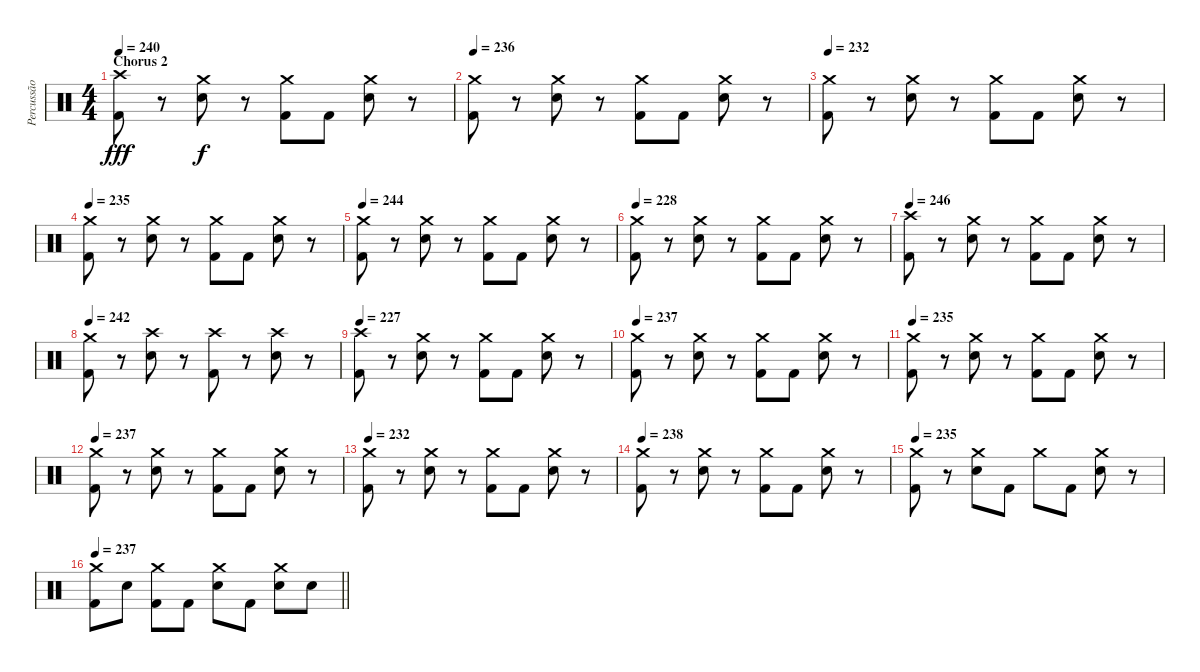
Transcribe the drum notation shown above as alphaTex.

\track ("Percussão" "Percussão") {instrument percussion}
\staff {score}
\articulation defaults
\ts (4 4)
\section ("" "Chorus 2")
\tempo 240
\clef neutral
\ks c
("Crash high (hit)" "Kick (hit) 2").8{dy fff} r.8 ("Crash medium (hit)" "Electric Snare (hit)").8{dy f} r.8 ("Crash medium (hit)" "Kick (hit) 2").8 "Kick (hit) 2".8 ("Crash medium (hit)" "Electric Snare (hit)").8 r.8 |
\tempo 236
("Crash medium (hit)" "Kick (hit) 2").8 r.8 ("Crash medium (hit)" "Electric Snare (hit)").8 r.8 ("Crash medium (hit)" "Kick (hit) 2").8 "Kick (hit) 2".8 ("Crash medium (hit)" "Electric Snare (hit)").8 r.8 |
\tempo 232
("Crash medium (hit)" "Kick (hit) 2").8 r.8 ("Crash medium (hit)" "Electric Snare (hit)").8 r.8 ("Crash medium (hit)" "Kick (hit) 2").8 "Kick (hit) 2".8 ("Crash medium (hit)" "Electric Snare (hit)").8 r.8 |
\tempo 235
("Crash medium (hit)" "Kick (hit) 2").8 r.8 ("Crash medium (hit)" "Electric Snare (hit)").8 r.8 ("Crash medium (hit)" "Kick (hit) 2").8 "Kick (hit) 2".8 ("Crash medium (hit)" "Electric Snare (hit)").8 r.8 |
\tempo 244
("Crash medium (hit)" "Kick (hit) 2").8 r.8 ("Crash medium (hit)" "Electric Snare (hit)").8 r.8 ("Crash medium (hit)" "Kick (hit) 2").8 "Kick (hit) 2".8 ("Crash medium (hit)" "Electric Snare (hit)").8 r.8 |
\tempo 228
("Crash medium (hit)" "Kick (hit) 2").8 r.8 ("Crash medium (hit)" "Electric Snare (hit)").8 r.8 ("Crash medium (hit)" "Kick (hit) 2").8 "Kick (hit) 2".8 ("Crash medium (hit)" "Electric Snare (hit)").8 r.8 |
\tempo 246
("Crash high (hit)" "Kick (hit) 2").8 r.8 ("Crash medium (hit)" "Electric Snare (hit)").8 r.8 ("Crash medium (hit)" "Kick (hit) 2").8 "Kick (hit) 2".8 ("Crash medium (hit)" "Electric Snare (hit)").8 r.8 |
\tempo 242
("Crash medium (hit)" "Kick (hit) 2").8 r.8 ("Crash high (hit)" "Electric Snare (hit)").8 r.8 ("Crash high (hit)" "Kick (hit) 2").8 r.8 ("Crash high (hit)" "Electric Snare (hit)").8 r.8 |
\tempo 227
("Crash high (hit)" "Kick (hit) 2").8 r.8 ("Crash medium (hit)" "Electric Snare (hit)").8 r.8 ("Crash medium (hit)" "Kick (hit) 2").8 "Kick (hit) 2".8 ("Crash medium (hit)" "Electric Snare (hit)").8 r.8 |
\tempo 237
("Crash medium (hit)" "Kick (hit) 2").8 r.8 ("Crash medium (hit)" "Electric Snare (hit)").8 r.8 ("Crash medium (hit)" "Kick (hit) 2").8 "Kick (hit) 2".8 ("Crash medium (hit)" "Electric Snare (hit)").8 r.8 |
\tempo 235
("Crash medium (hit)" "Kick (hit) 2").8 r.8 ("Crash medium (hit)" "Electric Snare (hit)").8 r.8 ("Crash medium (hit)" "Kick (hit) 2").8 "Kick (hit) 2".8 ("Crash medium (hit)" "Electric Snare (hit)").8 r.8 |
\tempo 237
("Crash medium (hit)" "Kick (hit) 2").8 r.8 ("Crash medium (hit)" "Electric Snare (hit)").8 r.8 ("Crash medium (hit)" "Kick (hit) 2").8 "Kick (hit) 2".8 ("Crash medium (hit)" "Electric Snare (hit)").8 r.8 |
\tempo 232
("Crash medium (hit)" "Kick (hit) 2").8 r.8 ("Crash medium (hit)" "Electric Snare (hit)").8 r.8 ("Crash medium (hit)" "Kick (hit) 2").8 "Kick (hit) 2".8 ("Crash medium (hit)" "Electric Snare (hit)").8 r.8 |
\tempo 238
("Crash medium (hit)" "Kick (hit) 2").8 r.8 ("Crash medium (hit)" "Electric Snare (hit)").8 r.8 ("Crash medium (hit)" "Kick (hit) 2").8 "Kick (hit) 2".8 ("Crash medium (hit)" "Electric Snare (hit)").8 r.8 |
\tempo 235
("Crash medium (hit)" "Kick (hit) 2").8 r.8 ("Crash medium (hit)" "Electric Snare (hit)").8 "Kick (hit) 2".8 "Crash medium (hit)".8 "Kick (hit) 2".8 ("Crash medium (hit)" "Electric Snare (hit)").8 r.8 |
\tempo 237
\barLineRight lightlight
("Crash medium (hit)" "Kick (hit) 2").8 "Electric Snare (hit)".8 ("Crash medium (hit)" "Kick (hit) 2").8 "Kick (hit) 2".8 ("Crash medium (hit)" "Electric Snare (hit)").8 "Kick (hit) 2".8 ("Crash medium (hit)" "Electric Snare (hit)").8 "Electric Snare (hit)".8
